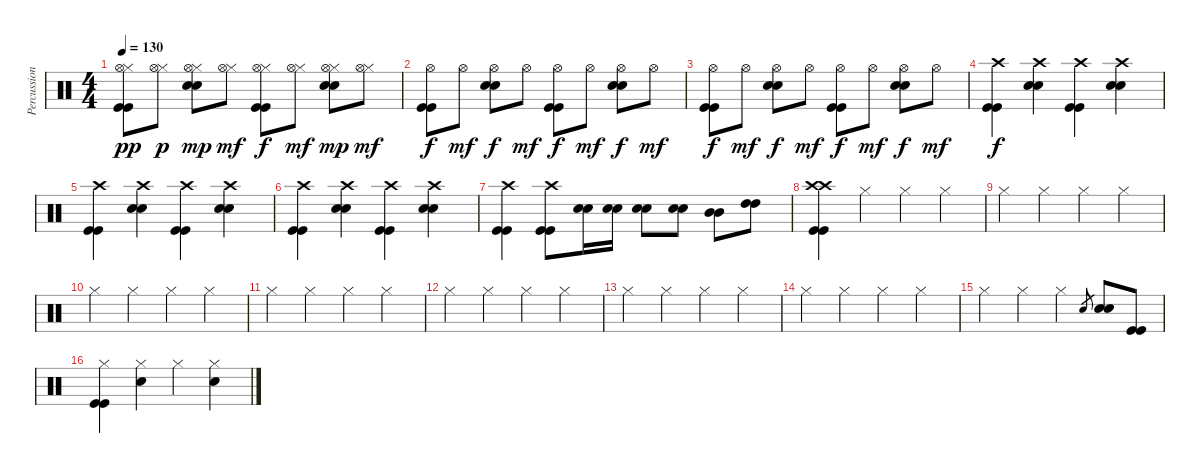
\track ("Percussions" "Percussion") {instrument percussion}
\staff {score}
\articulation defaults
\ts (4 4)
\tempo 130
\clef neutral
\ks c
("Hi-Hat (closed)" "Hi-Hat (open)" "Kick (hit)" "Kick (hit)").8{dy pp} ("Hi-Hat (closed)" "Hi-Hat (open)").8{dy p} ("Hi-Hat (closed)" "Snare (hit) 2" "Snare (hit) 2" "Hi-Hat (open)").8{dy mp} ("Hi-Hat (closed)" "Hi-Hat (open)").8{dy mf} ("Hi-Hat (closed)" "Hi-Hat (open)" "Kick (hit)" "Kick (hit)").8{dy f} ("Hi-Hat (closed)" "Hi-Hat (open)").8{dy mf} ("Hi-Hat (closed)" "Snare (hit) 2" "Snare (hit) 2" "Hi-Hat (open)").8{dy mp} ("Hi-Hat (closed)" "Hi-Hat (open)").8{dy mf} |
("Hi-Hat (open)" "Kick (hit)" "Kick (hit)").8{dy f} "Hi-Hat (open)".8{dy mf} ("Hi-Hat (open)" "Snare (hit) 2" "Snare (hit) 2").8{dy f} "Hi-Hat (open)".8{dy mf} ("Hi-Hat (open)" "Kick (hit)" "Kick (hit)").8{dy f} "Hi-Hat (open)".8{dy mf} ("Hi-Hat (open)" "Snare (hit) 2" "Snare (hit) 2").8{dy f} "Hi-Hat (open)".8{dy mf} |
("Hi-Hat (open)" "Kick (hit)" "Kick (hit)").8{dy f} "Hi-Hat (open)".8{dy mf} ("Hi-Hat (open)" "Snare (hit) 2" "Snare (hit) 2").8{dy f} "Hi-Hat (open)".8{dy mf} ("Hi-Hat (open)" "Kick (hit)" "Kick (hit)").8{dy f} "Hi-Hat (open)".8{dy mf} ("Hi-Hat (open)" "Snare (hit) 2" "Snare (hit) 2").8{dy f} "Hi-Hat (open)".8{dy mf} |
("Crash high (hit)" "Kick (hit)" "Kick (hit)").4{dy f} ("Crash high (hit)" "Snare (hit) 2" "Snare (hit) 2").4 ("Crash high (hit)" "Kick (hit)" "Kick (hit)").4 ("Crash high (hit)" "Snare (hit) 2" "Snare (hit) 2").4 |
("Crash high (hit)" "Kick (hit)" "Kick (hit)").4 ("Crash high (hit)" "Snare (hit) 2" "Snare (hit) 2").4 ("Crash high (hit)" "Kick (hit)" "Kick (hit)").4 ("Crash high (hit)" "Snare (hit) 2" "Snare (hit) 2").4 |
("Crash high (hit)" "Kick (hit)" "Kick (hit)").4 ("Crash high (hit)" "Snare (hit) 2" "Snare (hit) 2").4 ("Crash high (hit)" "Kick (hit)" "Kick (hit)").4 ("Crash high (hit)" "Snare (hit) 2" "Snare (hit) 2").4 |
("Crash high (hit)" "Kick (hit)" "Kick (hit)").4 ("Crash high (hit)" "Kick (hit)" "Kick (hit)").8 ("Snare (hit) 2" "Snare (hit) 2").16 ("Snare (hit) 2" "Snare (hit) 2").16 ("Snare (hit) 2" "Snare (hit) 2").8 ("Snare (hit) 2" "Snare (hit) 2").8 ("Mid Tom (hit)" "Mid Tom (hit)").8 ("High Tom (hit)" "High Tom (hit)").8 |
("Crash high (hit)" "Crash high (hit)" "Kick (hit)" "Kick (hit)").4 "Hi-Hat (closed)".4 "Hi-Hat (closed)".4 "Hi-Hat (closed)".4 |
"Hi-Hat (closed)".4 "Hi-Hat (closed)".4 "Hi-Hat (closed)".4 "Hi-Hat (closed)".4 |
"Hi-Hat (closed)".4 "Hi-Hat (closed)".4 "Hi-Hat (closed)".4 "Hi-Hat (closed)".4 |
"Hi-Hat (closed)".4 "Hi-Hat (closed)".4 "Hi-Hat (closed)".4 "Hi-Hat (closed)".4 |
"Hi-Hat (closed)".4 "Hi-Hat (closed)".4 "Hi-Hat (closed)".4 "Hi-Hat (closed)".4 |
"Hi-Hat (closed)".4 "Hi-Hat (closed)".4 "Hi-Hat (closed)".4 "Hi-Hat (closed)".4 |
"Hi-Hat (closed)".4 "Hi-Hat (closed)".4 "Hi-Hat (closed)".4 "Hi-Hat (closed)".4 |
"Hi-Hat (closed)".4 "Hi-Hat (closed)".4 "Hi-Hat (closed)".4 "Snare (hit) 2".8{gr} ("Snare (hit) 2" "Snare (hit) 2").8 ("Kick (hit)" "Kick (hit)").8 |
("Hi-Hat (closed)" "Kick (hit)" "Kick (hit)").4 ("Hi-Hat (closed)" "Snare (hit) 2").4 "Hi-Hat (closed)".4 ("Hi-Hat (closed)" "Snare (hit) 2").4
